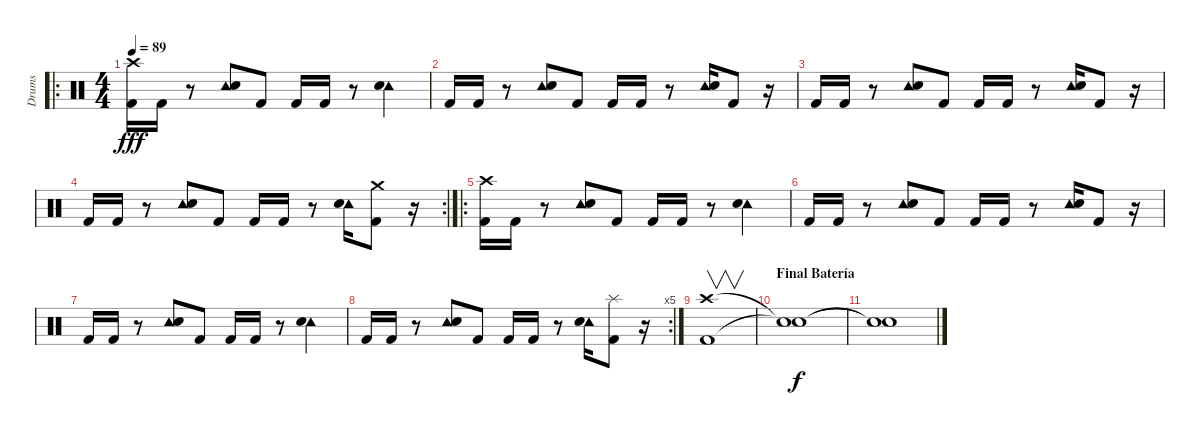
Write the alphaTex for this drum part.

\track ("Drums" "Drums") {instrument percussion}
\staff {score}
\articulation defaults
\ro
\ts (4 4)
\tempo 89
\clef neutral
\ks c
("Crash high (hit)" "Kick (hit) 2").16{dy fff} "Kick (hit) 2".16 r.8 ("Tambourine (hit)" "Electric Snare (hit)").8 "Kick (hit) 2".8 "Kick (hit) 2".16 "Kick (hit) 2".16 r.8 ("Tambourine (hit)" "Electric Snare (hit)").4 |
"Kick (hit) 2".16 "Kick (hit) 2".16 r.8 ("Tambourine (hit)" "Electric Snare (hit)").8 "Kick (hit) 2".8 "Kick (hit) 2".16 "Kick (hit) 2".16 r.8 ("Tambourine (hit)" "Electric Snare (hit)").16 "Kick (hit) 2".8 r.16 |
"Kick (hit) 2".16 "Kick (hit) 2".16 r.8 ("Tambourine (hit)" "Electric Snare (hit)").8 "Kick (hit) 2".8 "Kick (hit) 2".16 "Kick (hit) 2".16 r.8 ("Tambourine (hit)" "Electric Snare (hit)").16 "Kick (hit) 2".8 r.16 |
\rc 2 "Kick (hit) 2".16 "Kick (hit) 2".16
r.8 ("Tambourine (hit)" "Electric Snare (hit)").8 "Kick (hit) 2".8 "Kick (hit) 2".16 "Kick (hit) 2".16 r.8 ("Tambourine (hit)" "Electric Snare (hit)").16 ("Crash medium (hit)" "Kick (hit) 2").8 r.16 |
\ro
("Crash high (hit)" "Kick (hit) 2").16 "Kick (hit) 2".16 r.8 ("Tambourine (hit)" "Electric Snare (hit)").8 "Kick (hit) 2".8 "Kick (hit) 2".16 "Kick (hit) 2".16 r.8 ("Tambourine (hit)" "Electric Snare (hit)").4 |
"Kick (hit) 2".16 "Kick (hit) 2".16 r.8 ("Tambourine (hit)" "Electric Snare (hit)").8 "Kick (hit) 2".8 "Kick (hit) 2".16 "Kick (hit) 2".16 r.8 ("Tambourine (hit)" "Electric Snare (hit)").16 "Kick (hit) 2".8 r.16 |
"Kick (hit) 2".16 "Kick (hit) 2".16 r.8 ("Tambourine (hit)" "Electric Snare (hit)").8 "Kick (hit) 2".8 "Kick (hit) 2".16 "Kick (hit) 2".16 r.8 ("Tambourine (hit)" "Electric Snare (hit)").4 |
\rc 5 "Kick (hit) 2".16 "Kick (hit) 2".16
r.8 ("Tambourine (hit)" "Electric Snare (hit)").8 "Kick (hit) 2".8 "Kick (hit) 2".16 "Kick (hit) 2".16 r.8 ("Tambourine (hit)" "Electric Snare (hit)").16 ("Splash (hit)" "Kick (hit) 2").8 r.16 |
("Crash high (hit)" "Kick (hit) 2").1{v bd 60} |
\section ("" "Final Batería")
("Snare (hit)"{t} "Snare (hit)"{t}).1{dy f} |
("Snare (hit)"{t} "Snare (hit)"{t}).1
